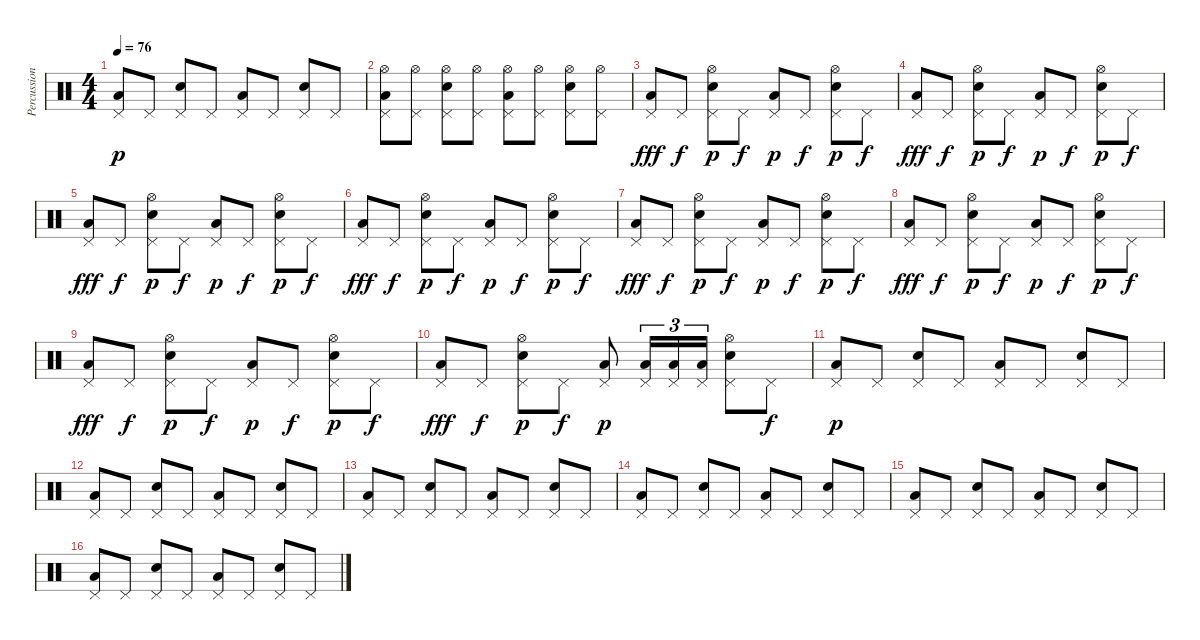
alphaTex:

\track ("Percussion" "Percussion") {instrument percussion}
\staff {score}
\articulation defaults
\ts (4 4)
\tempo 76
\clef neutral
\ks c
("Low Floor Tom (hit)" "Pedal Hi-Hat (hit)").8{dy p} "Pedal Hi-Hat (hit)".8 ("Electric Snare (hit)" "Pedal Hi-Hat (hit)").8 "Pedal Hi-Hat (hit)".8 ("Low Floor Tom (hit)" "Pedal Hi-Hat (hit)").8 "Pedal Hi-Hat (hit)".8 ("Electric Snare (hit)" "Pedal Hi-Hat (hit)").8 "Pedal Hi-Hat (hit)".8 |
("Low Floor Tom (hit)" "Pedal Hi-Hat (hit)" "Hi-Hat (open)").8 ("Pedal Hi-Hat (hit)" "Hi-Hat (open)").8 ("Electric Snare (hit)" "Pedal Hi-Hat (hit)" "Hi-Hat (open)").8 ("Pedal Hi-Hat (hit)" "Hi-Hat (open)").8 ("Low Floor Tom (hit)" "Pedal Hi-Hat (hit)" "Hi-Hat (open)").8 ("Pedal Hi-Hat (hit)" "Hi-Hat (open)").8 ("Electric Snare (hit)" "Pedal Hi-Hat (hit)" "Hi-Hat (open)").8 ("Pedal Hi-Hat (hit)" "Hi-Hat (open)").8 |
("Low Floor Tom (hit)" "Pedal Hi-Hat (hit)").8{dy fff} "Pedal Hi-Hat (hit)".8{dy f} ("Electric Snare (hit)" "Pedal Hi-Hat (hit)" "Hi-Hat (open)").8{dy p} "Pedal Hi-Hat (hit)".8{dy f} ("Low Floor Tom (hit)" "Pedal Hi-Hat (hit)").8{dy p} "Pedal Hi-Hat (hit)".8{dy f} ("Electric Snare (hit)" "Pedal Hi-Hat (hit)" "Hi-Hat (open)").8{dy p} "Pedal Hi-Hat (hit)".8{dy f} |
("Low Floor Tom (hit)" "Pedal Hi-Hat (hit)").8{dy fff} "Pedal Hi-Hat (hit)".8{dy f} ("Electric Snare (hit)" "Pedal Hi-Hat (hit)" "Hi-Hat (open)").8{dy p} "Pedal Hi-Hat (hit)".8{dy f} ("Low Floor Tom (hit)" "Pedal Hi-Hat (hit)").8{dy p} "Pedal Hi-Hat (hit)".8{dy f} ("Electric Snare (hit)" "Pedal Hi-Hat (hit)" "Hi-Hat (open)").8{dy p} "Pedal Hi-Hat (hit)".8{dy f} |
("Low Floor Tom (hit)" "Pedal Hi-Hat (hit)").8{dy fff} "Pedal Hi-Hat (hit)".8{dy f} ("Electric Snare (hit)" "Pedal Hi-Hat (hit)" "Hi-Hat (open)").8{dy p} "Pedal Hi-Hat (hit)".8{dy f} ("Low Floor Tom (hit)" "Pedal Hi-Hat (hit)").8{dy p} "Pedal Hi-Hat (hit)".8{dy f} ("Electric Snare (hit)" "Pedal Hi-Hat (hit)" "Hi-Hat (open)").8{dy p} "Pedal Hi-Hat (hit)".8{dy f} |
("Low Floor Tom (hit)" "Pedal Hi-Hat (hit)").8{dy fff} "Pedal Hi-Hat (hit)".8{dy f} ("Electric Snare (hit)" "Pedal Hi-Hat (hit)" "Hi-Hat (open)").8{dy p} "Pedal Hi-Hat (hit)".8{dy f} ("Low Floor Tom (hit)" "Pedal Hi-Hat (hit)").8{dy p} "Pedal Hi-Hat (hit)".8{dy f} ("Electric Snare (hit)" "Pedal Hi-Hat (hit)" "Hi-Hat (open)").8{dy p} "Pedal Hi-Hat (hit)".8{dy f} |
("Low Floor Tom (hit)" "Pedal Hi-Hat (hit)").8{dy fff} "Pedal Hi-Hat (hit)".8{dy f} ("Electric Snare (hit)" "Pedal Hi-Hat (hit)" "Hi-Hat (open)").8{dy p} "Pedal Hi-Hat (hit)".8{dy f} ("Low Floor Tom (hit)" "Pedal Hi-Hat (hit)").8{dy p} "Pedal Hi-Hat (hit)".8{dy f} ("Electric Snare (hit)" "Pedal Hi-Hat (hit)" "Hi-Hat (open)").8{dy p} "Pedal Hi-Hat (hit)".8{dy f} |
("Low Floor Tom (hit)" "Pedal Hi-Hat (hit)").8{dy fff} "Pedal Hi-Hat (hit)".8{dy f} ("Electric Snare (hit)" "Pedal Hi-Hat (hit)" "Hi-Hat (open)").8{dy p} "Pedal Hi-Hat (hit)".8{dy f} ("Low Floor Tom (hit)" "Pedal Hi-Hat (hit)").8{dy p} "Pedal Hi-Hat (hit)".8{dy f} ("Electric Snare (hit)" "Pedal Hi-Hat (hit)" "Hi-Hat (open)").8{dy p} "Pedal Hi-Hat (hit)".8{dy f} |
("Low Floor Tom (hit)" "Pedal Hi-Hat (hit)").8{dy fff} "Pedal Hi-Hat (hit)".8{dy f} ("Electric Snare (hit)" "Pedal Hi-Hat (hit)" "Hi-Hat (open)").8{dy p} "Pedal Hi-Hat (hit)".8{dy f} ("Low Floor Tom (hit)" "Pedal Hi-Hat (hit)").8{dy p} "Pedal Hi-Hat (hit)".8{dy f} ("Electric Snare (hit)" "Pedal Hi-Hat (hit)" "Hi-Hat (open)").8{dy p} "Pedal Hi-Hat (hit)".8{dy f} |
("Low Floor Tom (hit)" "Pedal Hi-Hat (hit)").8{dy fff} "Pedal Hi-Hat (hit)".8{dy f} ("Electric Snare (hit)" "Pedal Hi-Hat (hit)" "Hi-Hat (open)").8{dy p} "Pedal Hi-Hat (hit)".8{dy f} ("Low Floor Tom (hit)" "Pedal Hi-Hat (hit)").8{dy p} ("Low Floor Tom (hit)" "Pedal Hi-Hat (hit)").16{tu (3 2)} ("Low Floor Tom (hit)" "Pedal Hi-Hat (hit)").16{tu (3 2)} ("Low Floor Tom (hit)" "Pedal Hi-Hat (hit)").16{tu (3 2)} ("Electric Snare (hit)" "Pedal Hi-Hat (hit)" "Hi-Hat (open)").8 "Pedal Hi-Hat (hit)".8{dy f} |
("Low Floor Tom (hit)" "Pedal Hi-Hat (hit)").8{dy p} "Pedal Hi-Hat (hit)".8 ("Electric Snare (hit)" "Pedal Hi-Hat (hit)").8 "Pedal Hi-Hat (hit)".8 ("Low Floor Tom (hit)" "Pedal Hi-Hat (hit)").8 "Pedal Hi-Hat (hit)".8 ("Electric Snare (hit)" "Pedal Hi-Hat (hit)").8 "Pedal Hi-Hat (hit)".8 |
("Low Floor Tom (hit)" "Pedal Hi-Hat (hit)").8 "Pedal Hi-Hat (hit)".8 ("Electric Snare (hit)" "Pedal Hi-Hat (hit)").8 "Pedal Hi-Hat (hit)".8 ("Low Floor Tom (hit)" "Pedal Hi-Hat (hit)").8 "Pedal Hi-Hat (hit)".8 ("Electric Snare (hit)" "Pedal Hi-Hat (hit)").8 "Pedal Hi-Hat (hit)".8 |
("Low Floor Tom (hit)" "Pedal Hi-Hat (hit)").8 "Pedal Hi-Hat (hit)".8 ("Electric Snare (hit)" "Pedal Hi-Hat (hit)").8 "Pedal Hi-Hat (hit)".8 ("Low Floor Tom (hit)" "Pedal Hi-Hat (hit)").8 "Pedal Hi-Hat (hit)".8 ("Electric Snare (hit)" "Pedal Hi-Hat (hit)").8 "Pedal Hi-Hat (hit)".8 |
("Low Floor Tom (hit)" "Pedal Hi-Hat (hit)").8 "Pedal Hi-Hat (hit)".8 ("Electric Snare (hit)" "Pedal Hi-Hat (hit)").8 "Pedal Hi-Hat (hit)".8 ("Low Floor Tom (hit)" "Pedal Hi-Hat (hit)").8 "Pedal Hi-Hat (hit)".8 ("Electric Snare (hit)" "Pedal Hi-Hat (hit)").8 "Pedal Hi-Hat (hit)".8 |
("Low Floor Tom (hit)" "Pedal Hi-Hat (hit)").8 "Pedal Hi-Hat (hit)".8 ("Electric Snare (hit)" "Pedal Hi-Hat (hit)").8 "Pedal Hi-Hat (hit)".8 ("Low Floor Tom (hit)" "Pedal Hi-Hat (hit)").8 "Pedal Hi-Hat (hit)".8 ("Electric Snare (hit)" "Pedal Hi-Hat (hit)").8 "Pedal Hi-Hat (hit)".8 |
("Low Floor Tom (hit)" "Pedal Hi-Hat (hit)").8 "Pedal Hi-Hat (hit)".8 ("Electric Snare (hit)" "Pedal Hi-Hat (hit)").8 "Pedal Hi-Hat (hit)".8 ("Low Floor Tom (hit)" "Pedal Hi-Hat (hit)").8 "Pedal Hi-Hat (hit)".8 ("Electric Snare (hit)" "Pedal Hi-Hat (hit)").8 "Pedal Hi-Hat (hit)".8
